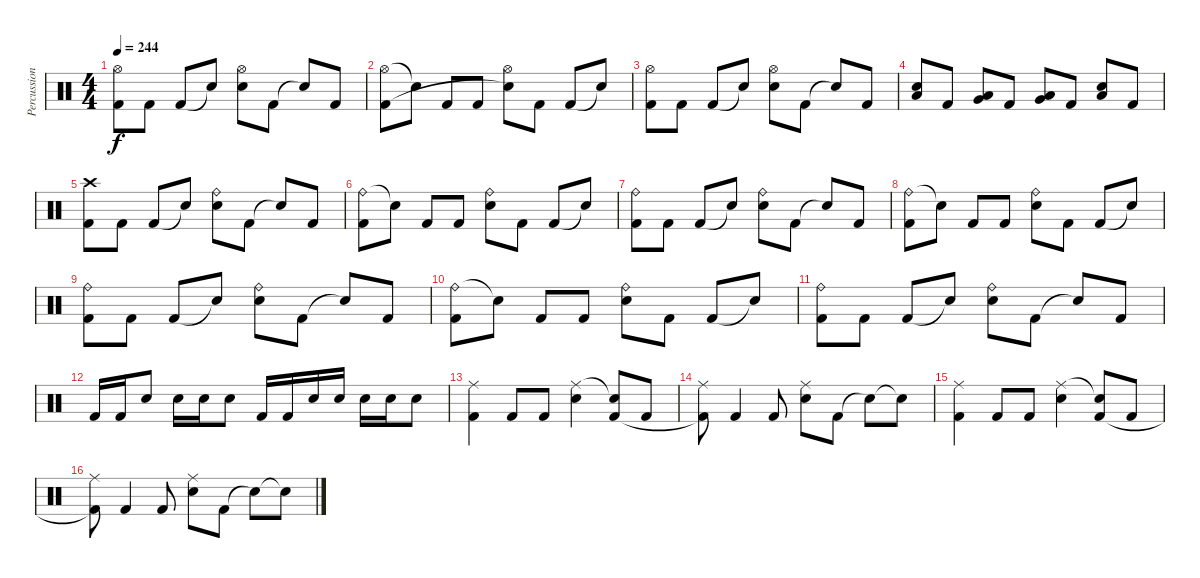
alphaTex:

\track ("Percussions" "Percussion") {instrument percussion}
\staff {score}
\articulation defaults
\ts (4 4)
\tempo 244
\clef neutral
\ks c
("Hi-Hat (open)" "Kick (hit) 2").8{dy f} "Kick (hit) 2".8 "Kick (hit) 2".8 "Snare (hit)"{t}.8 ("Hi-Hat (open)" "Electric Snare (hit)").8 "Kick (hit) 2".8 "Snare (hit)"{t}.8 "Kick (hit) 2".8 |
("Hi-Hat (open)" "Kick (hit) 2").8 "Snare (hit)"{t}.8 "Kick (hit) 2".8 "Kick (hit) 2".8 ("Hi-Hat (open)" "Snare (hit)"{t}).8 "Kick (hit) 2".8 "Kick (hit) 2".8 "Snare (hit)"{t}.8 |
("Hi-Hat (open)" "Kick (hit) 2").8 "Kick (hit) 2".8 "Kick (hit) 2".8 "Snare (hit)"{t}.8 ("Hi-Hat (open)" "Electric Snare (hit)").8 "Kick (hit) 2".8 "Snare (hit)"{t}.8 "Kick (hit) 2".8 |
("Low Tom (hit)" "Electric Snare (hit)").8 "Kick (hit) 2".8 ("Very Low Tom (hit)" "Low Tom (hit)").8 "Kick (hit) 2".8 ("Very Low Tom (hit)" "Low Floor Tom (hit)").8 "Kick (hit) 2".8 ("Low Tom (hit)" "Electric Snare (hit)").8 "Kick (hit) 2".8 |
("Crash high (hit)" "Kick (hit) 2").8 "Kick (hit) 2".8 "Kick (hit) 2".8 "Snare (hit)"{t}.8 ("Ride (bell)" "Electric Snare (hit)").8 "Kick (hit) 2".8 "Snare (hit)"{t}.8 "Kick (hit) 2".8 |
("Ride (bell)" "Kick (hit) 2").8 "Snare (hit)"{t}.8 "Kick (hit) 2".8 "Kick (hit) 2".8 ("Ride (bell)" "Electric Snare (hit)").8 "Kick (hit) 2".8 "Kick (hit) 2".8 "Snare (hit)"{t}.8 |
("Ride (bell)" "Kick (hit) 2").8 "Kick (hit) 2".8 "Kick (hit) 2".8 "Snare (hit)"{t}.8 ("Ride (bell)" "Electric Snare (hit)").8 "Kick (hit) 2".8 "Snare (hit)"{t}.8 "Kick (hit) 2".8 |
("Ride (bell)" "Kick (hit) 2").8 "Snare (hit)"{t}.8 "Kick (hit) 2".8 "Kick (hit) 2".8 ("Ride (bell)" "Electric Snare (hit)").8 "Kick (hit) 2".8 "Kick (hit) 2".8 "Snare (hit)"{t}.8 |
("Ride (bell)" "Kick (hit) 2").8 "Kick (hit) 2".8 "Kick (hit) 2".8 "Snare (hit)"{t}.8 ("Ride (bell)" "Electric Snare (hit)").8 "Kick (hit) 2".8 "Snare (hit)"{t}.8 "Kick (hit) 2".8 |
("Ride (bell)" "Kick (hit) 2").8 "Snare (hit)"{t}.8 "Kick (hit) 2".8 "Kick (hit) 2".8 ("Ride (bell)" "Electric Snare (hit)").8 "Kick (hit) 2".8 "Kick (hit) 2".8 "Snare (hit)"{t}.8 |
("Ride (bell)" "Kick (hit) 2").8 "Kick (hit) 2".8 "Kick (hit) 2".8 "Snare (hit)"{t}.8 ("Ride (bell)" "Electric Snare (hit)").8 "Kick (hit) 2".8 "Snare (hit)"{t}.8 "Kick (hit) 2".8 |
"Kick (hit) 2".16 "Kick (hit) 2".16 "Electric Snare (hit)".8 "Electric Snare (hit)".16 "Electric Snare (hit)".16 "Electric Snare (hit)".8 "Kick (hit) 2".16 "Kick (hit) 2".16 "Electric Snare (hit)".16 "Electric Snare (hit)".16 "Electric Snare (hit)".16 "Electric Snare (hit)".16 "Electric Snare (hit)".8 |
("Ride (middle)" "Kick (hit) 2").4 "Kick (hit) 2".8 "Kick (hit) 2".8 ("Ride (middle)" "Electric Snare (hit)").4 ("Snare (hit)"{t} "Kick (hit) 2").8 "Kick (hit) 2".8 |
("Ride (middle)" "Kick (hit) 2"{t}).8 "Kick (hit) 2".4 "Kick (hit) 2".8 ("Ride (middle)" "Electric Snare (hit)").8 "Kick (hit) 2".8 "Snare (hit)"{t}.8 "Snare (hit)"{t}.8 |
("Ride (middle)" "Kick (hit) 2").4 "Kick (hit) 2".8 "Kick (hit) 2".8 ("Ride (middle)" "Electric Snare (hit)").4 ("Snare (hit)"{t} "Kick (hit) 2").8 "Kick (hit) 2".8 |
("Ride (middle)" "Kick (hit) 2"{t}).8 "Kick (hit) 2".4 "Kick (hit) 2".8 ("Ride (middle)" "Electric Snare (hit)").8 "Kick (hit) 2".8 "Snare (hit)"{t}.8 "Snare (hit)"{t}.8
